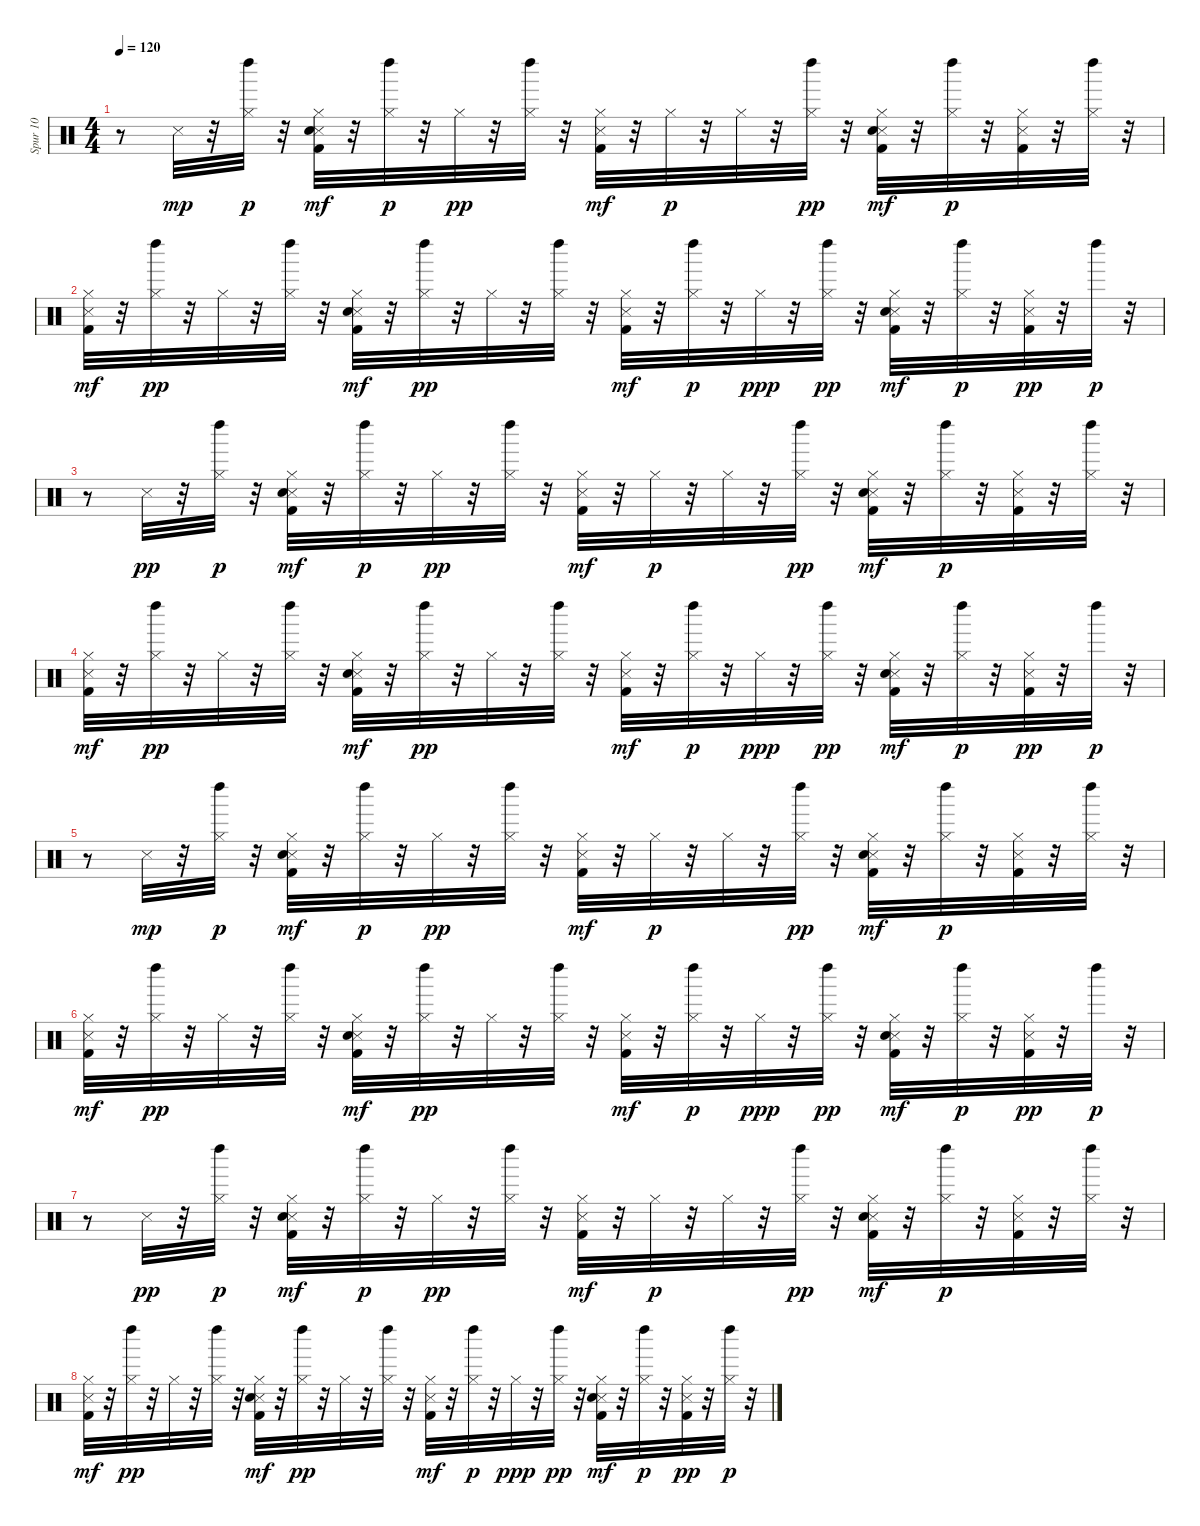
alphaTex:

\track ("Spur 10" "Spur 10") {instrument percussion}
\staff {score}
\articulation defaults
\ts (4 4)
\tempo 120
\clef neutral
\ks c
r.8{dy p} "Snare (side stick) 3".32{dy mp} r.32 ("Hi-Hat (closed)" "Left Maraca (hit)").32{dy p} r.32 ("Kick (hit) 2" "Snare (side stick) 3" "Hand Clap (hit)" "Hi-Hat (closed)").32{dy mf} r.32 ("Hi-Hat (closed)" "Left Maraca (hit)").32{dy p} r.32 "Hi-Hat (closed)".32{dy pp} r.32 ("Hi-Hat (closed)" "Left Maraca (hit)").32 r.32 ("Kick (hit) 2" "Snare (side stick) 3" "Hi-Hat (closed)").32{dy mf} r.32 "Hi-Hat (closed)".32{dy p} r.32 "Hi-Hat (closed)".32 r.32 ("Hi-Hat (closed)" "Left Maraca (hit)").32{dy pp} r.32 ("Kick (hit) 2" "Snare (side stick) 3" "Hand Clap (hit)" "Hi-Hat (closed)").32{dy mf} r.32 ("Hi-Hat (closed)" "Left Maraca (hit)").32{dy p} r.32 ("Kick (hit) 2" "Snare (side stick) 3" "Hi-Hat (closed)").32 r.32 ("Hi-Hat (closed)" "Left Maraca (hit)").32 r.32 |
("Kick (hit) 2" "Snare (side stick) 3" "Hi-Hat (closed)").32{dy mf} r.32 ("Hi-Hat (closed)" "Left Maraca (hit)").32{dy pp} r.32 "Hi-Hat (closed)".32 r.32 ("Hi-Hat (closed)" "Left Maraca (hit)").32 r.32 ("Kick (hit) 2" "Snare (side stick) 3" "Hand Clap (hit)" "Hi-Hat (closed)").32{dy mf} r.32 ("Hi-Hat (closed)" "Left Maraca (hit)").32{dy pp} r.32 "Hi-Hat (closed)".32 r.32 ("Hi-Hat (closed)" "Left Maraca (hit)").32 r.32 ("Kick (hit) 2" "Snare (side stick) 3" "Hi-Hat (closed)").32{dy mf} r.32 ("Hi-Hat (closed)" "Left Maraca (hit)").32{dy p} r.32 "Hi-Hat (closed)".32{dy ppp} r.32 ("Hi-Hat (closed)" "Left Maraca (hit)").32{dy pp} r.32 ("Kick (hit) 2" "Snare (side stick) 3" "Hand Clap (hit)" "Hi-Hat (closed)").32{dy mf} r.32 ("Hi-Hat (closed)" "Left Maraca (hit)").32{dy p} r.32 ("Kick (hit) 2" "Snare (side stick) 3" "Hi-Hat (closed)").32{dy pp} r.32 "Left Maraca (hit)".32{dy p} r.32 |
r.8 "Snare (side stick) 3".32{dy pp} r.32 ("Hi-Hat (closed)" "Left Maraca (hit)").32{dy p} r.32 ("Kick (hit) 2" "Snare (side stick) 3" "Hand Clap (hit)" "Hi-Hat (closed)").32{dy mf} r.32 ("Hi-Hat (closed)" "Left Maraca (hit)").32{dy p} r.32 "Hi-Hat (closed)".32{dy pp} r.32 ("Hi-Hat (closed)" "Left Maraca (hit)").32 r.32 ("Kick (hit) 2" "Snare (side stick) 3" "Hi-Hat (closed)").32{dy mf} r.32 "Hi-Hat (closed)".32{dy p} r.32 "Hi-Hat (closed)".32 r.32 ("Hi-Hat (closed)" "Left Maraca (hit)").32{dy pp} r.32 ("Kick (hit) 2" "Snare (side stick) 3" "Hand Clap (hit)" "Hi-Hat (closed)").32{dy mf} r.32 ("Hi-Hat (closed)" "Left Maraca (hit)").32{dy p} r.32 ("Kick (hit) 2" "Snare (side stick) 3" "Hi-Hat (closed)").32 r.32 ("Hi-Hat (closed)" "Left Maraca (hit)").32 r.32 |
("Kick (hit) 2" "Snare (side stick) 3" "Hi-Hat (closed)").32{dy mf} r.32 ("Hi-Hat (closed)" "Left Maraca (hit)").32{dy pp} r.32 "Hi-Hat (closed)".32 r.32 ("Hi-Hat (closed)" "Left Maraca (hit)").32 r.32 ("Kick (hit) 2" "Snare (side stick) 3" "Hand Clap (hit)" "Hi-Hat (closed)").32{dy mf} r.32 ("Hi-Hat (closed)" "Left Maraca (hit)").32{dy pp} r.32 "Hi-Hat (closed)".32 r.32 ("Hi-Hat (closed)" "Left Maraca (hit)").32 r.32 ("Kick (hit) 2" "Snare (side stick) 3" "Hi-Hat (closed)").32{dy mf} r.32 ("Hi-Hat (closed)" "Left Maraca (hit)").32{dy p} r.32 "Hi-Hat (closed)".32{dy ppp} r.32 ("Hi-Hat (closed)" "Left Maraca (hit)").32{dy pp} r.32 ("Kick (hit) 2" "Snare (side stick) 3" "Hand Clap (hit)" "Hi-Hat (closed)").32{dy mf} r.32 ("Hi-Hat (closed)" "Left Maraca (hit)").32{dy p} r.32 ("Kick (hit) 2" "Snare (side stick) 3" "Hi-Hat (closed)").32{dy pp} r.32 "Left Maraca (hit)".32{dy p} r.32 |
r.8 "Snare (side stick) 3".32{dy mp} r.32 ("Hi-Hat (closed)" "Left Maraca (hit)").32{dy p} r.32 ("Kick (hit) 2" "Snare (side stick) 3" "Hand Clap (hit)" "Hi-Hat (closed)").32{dy mf} r.32 ("Hi-Hat (closed)" "Left Maraca (hit)").32{dy p} r.32 "Hi-Hat (closed)".32{dy pp} r.32 ("Hi-Hat (closed)" "Left Maraca (hit)").32 r.32 ("Kick (hit) 2" "Snare (side stick) 3" "Hi-Hat (closed)").32{dy mf} r.32 "Hi-Hat (closed)".32{dy p} r.32 "Hi-Hat (closed)".32 r.32 ("Hi-Hat (closed)" "Left Maraca (hit)").32{dy pp} r.32 ("Kick (hit) 2" "Snare (side stick) 3" "Hand Clap (hit)" "Hi-Hat (closed)").32{dy mf} r.32 ("Hi-Hat (closed)" "Left Maraca (hit)").32{dy p} r.32 ("Kick (hit) 2" "Snare (side stick) 3" "Hi-Hat (closed)").32 r.32 ("Hi-Hat (closed)" "Left Maraca (hit)").32 r.32 |
("Kick (hit) 2" "Snare (side stick) 3" "Hi-Hat (closed)").32{dy mf} r.32 ("Hi-Hat (closed)" "Left Maraca (hit)").32{dy pp} r.32 "Hi-Hat (closed)".32 r.32 ("Hi-Hat (closed)" "Left Maraca (hit)").32 r.32 ("Kick (hit) 2" "Snare (side stick) 3" "Hand Clap (hit)" "Hi-Hat (closed)").32{dy mf} r.32 ("Hi-Hat (closed)" "Left Maraca (hit)").32{dy pp} r.32 "Hi-Hat (closed)".32 r.32 ("Hi-Hat (closed)" "Left Maraca (hit)").32 r.32 ("Kick (hit) 2" "Snare (side stick) 3" "Hi-Hat (closed)").32{dy mf} r.32 ("Hi-Hat (closed)" "Left Maraca (hit)").32{dy p} r.32 "Hi-Hat (closed)".32{dy ppp} r.32 ("Hi-Hat (closed)" "Left Maraca (hit)").32{dy pp} r.32 ("Kick (hit) 2" "Snare (side stick) 3" "Hand Clap (hit)" "Hi-Hat (closed)").32{dy mf} r.32 ("Hi-Hat (closed)" "Left Maraca (hit)").32{dy p} r.32 ("Kick (hit) 2" "Snare (side stick) 3" "Hi-Hat (closed)").32{dy pp} r.32 "Left Maraca (hit)".32{dy p} r.32 |
r.8 "Snare (side stick) 3".32{dy pp} r.32 ("Hi-Hat (closed)" "Left Maraca (hit)").32{dy p} r.32 ("Kick (hit) 2" "Snare (side stick) 3" "Hand Clap (hit)" "Hi-Hat (closed)").32{dy mf} r.32 ("Hi-Hat (closed)" "Left Maraca (hit)").32{dy p} r.32 "Hi-Hat (closed)".32{dy pp} r.32 ("Hi-Hat (closed)" "Left Maraca (hit)").32 r.32 ("Kick (hit) 2" "Snare (side stick) 3" "Hi-Hat (closed)").32{dy mf} r.32 "Hi-Hat (closed)".32{dy p} r.32 "Hi-Hat (closed)".32 r.32 ("Hi-Hat (closed)" "Left Maraca (hit)").32{dy pp} r.32 ("Kick (hit) 2" "Snare (side stick) 3" "Hand Clap (hit)" "Hi-Hat (closed)").32{dy mf} r.32 ("Hi-Hat (closed)" "Left Maraca (hit)").32{dy p} r.32 ("Kick (hit) 2" "Snare (side stick) 3" "Hi-Hat (closed)").32 r.32 ("Hi-Hat (closed)" "Left Maraca (hit)").32 r.32 |
("Kick (hit) 2" "Snare (side stick) 3" "Hi-Hat (closed)").32{dy mf} r.32 ("Hi-Hat (closed)" "Left Maraca (hit)").32{dy pp} r.32 "Hi-Hat (closed)".32 r.32 ("Hi-Hat (closed)" "Left Maraca (hit)").32 r.32 ("Kick (hit) 2" "Snare (side stick) 3" "Hand Clap (hit)" "Hi-Hat (closed)").32{dy mf} r.32 ("Hi-Hat (closed)" "Left Maraca (hit)").32{dy pp} r.32 "Hi-Hat (closed)".32 r.32 ("Hi-Hat (closed)" "Left Maraca (hit)").32 r.32 ("Kick (hit) 2" "Snare (side stick) 3" "Hi-Hat (closed)").32{dy mf} r.32 ("Hi-Hat (closed)" "Left Maraca (hit)").32{dy p} r.32 "Hi-Hat (closed)".32{dy ppp} r.32 ("Hi-Hat (closed)" "Left Maraca (hit)").32{dy pp} r.32 ("Kick (hit) 2" "Snare (side stick) 3" "Hand Clap (hit)" "Hi-Hat (closed)").32{dy mf} r.32 ("Hi-Hat (closed)" "Left Maraca (hit)").32{dy p} r.32 ("Kick (hit) 2" "Snare (side stick) 3" "Hi-Hat (closed)").32{dy pp} r.32 ("Hi-Hat (closed)" "Left Maraca (hit)").32{dy p} r.32
